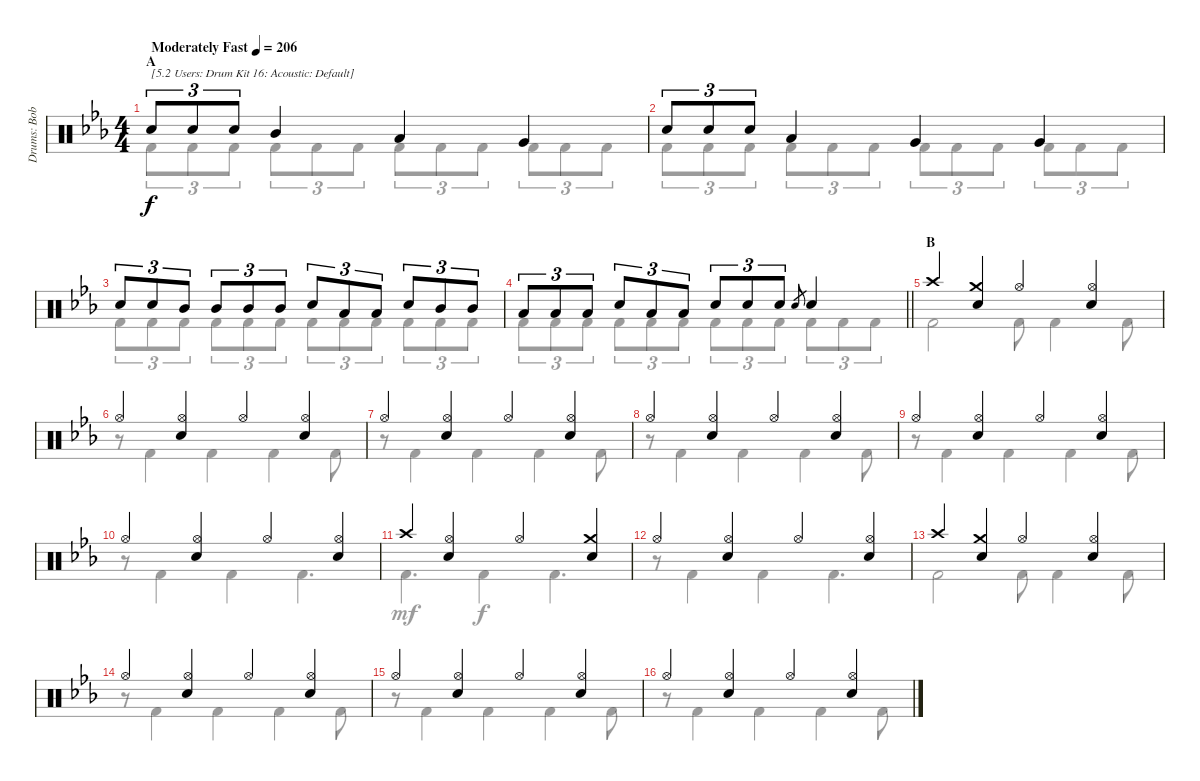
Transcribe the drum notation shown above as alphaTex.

\track ("Drums: Bobby" "Drums: Bob") {instrument percussion}
\staff {score}
\articulation defaults
\voice
\ts (4 4)
\section ("" "A")
\tempo (206 "Moderately Fast")
\clef neutral
\ks eb "Electric Snare (hit)".8{tu (3 2) txt "[5.2 Users: Drum Kit 16: Acoustic: Default]" dy f} "Electric Snare (hit)".8{tu (3 2)} "Electric Snare (hit)".8{tu (3 2)} "Mid Tom (hit)".4 "Low Tom (hit)".4 "Very Low Tom (hit)".4
|
"Electric Snare (hit)".8{tu (3 2)} "Electric Snare (hit)".8{tu (3 2)} "Electric Snare (hit)".8{tu (3 2)} "Low Tom (hit)".4 "Very Low Tom (hit)".4 "Very Low Tom (hit)".4 |
"Electric Snare (hit)".8{tu (3 2)} "Electric Snare (hit)".8{tu (3 2)} "Mid Tom (hit)".8{tu (3 2)} "Mid Tom (hit)".8{tu (3 2)} "Mid Tom (hit)".8{tu (3 2)} "Mid Tom (hit)".8{tu (3 2)} "Electric Snare (hit)".8{tu (3 2)} "Low Tom (hit)".8{tu (3 2)} "Low Tom (hit)".8{tu (3 2)} "Electric Snare (hit)".8{tu (3 2)} "Mid Tom (hit)".8{tu (3 2)} "Mid Tom (hit)".8{tu (3 2)} |
\barLineRight lightlight "Low Tom (hit)".8{tu (3 2)} "Low Tom (hit)".8{tu (3 2)} "Low Tom (hit)".8{tu (3 2)} "Electric Snare (hit)".8{tu (3 2)} "Low Tom (hit)".8{tu (3 2)} "Low Tom (hit)".8{tu (3 2)} "Electric Snare (hit)".8{tu (3 2)} "Electric Snare (hit)".8{tu (3 2)} "Electric Snare (hit)".8{tu (3 2)} "Electric Snare (hit)".8{gr} "Snare (hit) 2".4
|
\section ("" "B")
"Crash high (hit)".4 ("Crash medium (hit)" "Snare (hit) 2").4 "Hi-Hat (open)".4 ("Hi-Hat (open)" "Snare (hit) 2").4 |
"Hi-Hat (open)".4 ("Hi-Hat (open)" "Snare (hit) 2").4 "Hi-Hat (open)".4 ("Hi-Hat (open)" "Snare (hit) 2").4 |
"Hi-Hat (open)".4 ("Hi-Hat (open)" "Snare (hit) 2").4 "Hi-Hat (open)".4 ("Hi-Hat (open)" "Snare (hit) 2").4 |
"Hi-Hat (open)".4 ("Hi-Hat (open)" "Snare (hit) 2").4 "Hi-Hat (open)".4 ("Hi-Hat (open)" "Snare (hit) 2").4 |
"Hi-Hat (open)".4 ("Hi-Hat (open)" "Snare (hit) 2").4 "Hi-Hat (open)".4 ("Hi-Hat (open)" "Snare (hit) 2").4 |
"Hi-Hat (open)".4 ("Hi-Hat (open)" "Snare (hit) 2").4 "Hi-Hat (open)".4 ("Hi-Hat (open)" "Snare (hit) 2").4 |
"Crash high (hit)".4 ("Hi-Hat (open)" "Snare (hit) 2").4 "Hi-Hat (open)".4 ("Crash medium (hit)" "Snare (hit) 2").4 |
"Hi-Hat (open)".4 ("Hi-Hat (open)" "Snare (hit) 2").4 "Hi-Hat (open)".4 ("Hi-Hat (open)" "Snare (hit) 2").4 |
"Crash high (hit)".4 ("Crash medium (hit)" "Snare (hit) 2").4 "Hi-Hat (open)".4 ("Hi-Hat (open)" "Snare (hit) 2").4 |
"Hi-Hat (open)".4 ("Hi-Hat (open)" "Snare (hit) 2").4 "Hi-Hat (open)".4 ("Hi-Hat (open)" "Snare (hit) 2").4 |
"Hi-Hat (open)".4 ("Hi-Hat (open)" "Snare (hit) 2").4 "Hi-Hat (open)".4 ("Hi-Hat (open)" "Snare (hit) 2").4 |
"Hi-Hat (open)".4 ("Hi-Hat (open)" "Snare (hit) 2").4 "Hi-Hat (open)".4 ("Hi-Hat (open)" "Snare (hit) 2").4
\voice
\clef neutral
\ottava regular
\simile none
\ks eb "Kick (hit) 2".8{tu (3 2) dy f} "Kick (hit) 2".8{tu (3 2)} "Kick (hit) 2".8{tu (3 2)} "Kick (hit) 2".8{tu (3 2)} "Kick (hit) 2".8{tu (3 2)} "Kick (hit) 2".8{tu (3 2)} "Kick (hit) 2".8{tu (3 2)} "Kick (hit) 2".8{tu (3 2)} "Kick (hit) 2".8{tu (3 2)} "Kick (hit) 2".8{tu (3 2)} "Kick (hit) 2".8{tu (3 2)} "Kick (hit) 2".8{tu (3 2)}
|
"Kick (hit) 2".8{tu (3 2)} "Kick (hit) 2".8{tu (3 2)} "Kick (hit) 2".8{tu (3 2)} "Kick (hit) 2".8{tu (3 2)} "Kick (hit) 2".8{tu (3 2)} "Kick (hit) 2".8{tu (3 2)} "Kick (hit) 2".8{tu (3 2)} "Kick (hit) 2".8{tu (3 2)} "Kick (hit) 2".8{tu (3 2)} "Kick (hit) 2".8{tu (3 2)} "Kick (hit) 2".8{tu (3 2)} "Kick (hit) 2".8{tu (3 2)} |
"Kick (hit) 2".8{tu (3 2)} "Kick (hit) 2".8{tu (3 2)} "Kick (hit) 2".8{tu (3 2)} "Kick (hit) 2".8{tu (3 2)} "Kick (hit) 2".8{tu (3 2)} "Kick (hit) 2".8{tu (3 2)} "Kick (hit) 2".8{tu (3 2)} "Kick (hit) 2".8{tu (3 2)} "Kick (hit) 2".8{tu (3 2)} "Kick (hit) 2".8{tu (3 2)} "Kick (hit) 2".8{tu (3 2)} "Kick (hit) 2".8{tu (3 2)} |
\barLineRight lightlight "Kick (hit) 2".8{tu (3 2)} "Kick (hit) 2".8{tu (3 2)} "Kick (hit) 2".8{tu (3 2)} "Kick (hit) 2".8{tu (3 2)} "Kick (hit) 2".8{tu (3 2)} "Kick (hit) 2".8{tu (3 2)} "Kick (hit) 2".8{tu (3 2)} "Kick (hit) 2".8{tu (3 2)} "Kick (hit) 2".8{tu (3 2)} "Kick (hit) 2".8{tu (3 2)} "Kick (hit) 2".8{tu (3 2)} "Kick (hit) 2".8{tu (3 2)}
|
"Kick (hit) 2".2 "Kick (hit) 2".8 "Kick (hit) 2".4 "Kick (hit) 2".8 |
r.8 "Kick (hit) 2".4 "Kick (hit) 2".4 "Kick (hit) 2".4 "Kick (hit) 2".8 |
r.8 "Kick (hit) 2".4 "Kick (hit) 2".4 "Kick (hit) 2".4 "Kick (hit) 2".8 |
r.8 "Kick (hit) 2".4 "Kick (hit) 2".4 "Kick (hit) 2".4 "Kick (hit) 2".8 |
r.8 "Kick (hit) 2".4 "Kick (hit) 2".4 "Kick (hit) 2".4 "Kick (hit) 2".8 |
r.8 "Kick (hit) 2".4 "Kick (hit) 2".4 "Kick (hit) 2".4{d} |
"Kick (hit) 2".4{d dy mf} "Kick (hit) 2".4{dy f} "Kick (hit) 2".4{d} |
r.8 "Kick (hit) 2".4 "Kick (hit) 2".4 "Kick (hit) 2".4{d} |
"Kick (hit) 2".2 "Kick (hit) 2".8 "Kick (hit) 2".4 "Kick (hit) 2".8 |
r.8 "Kick (hit) 2".4 "Kick (hit) 2".4 "Kick (hit) 2".4 "Kick (hit) 2".8 |
r.8 "Kick (hit) 2".4 "Kick (hit) 2".4 "Kick (hit) 2".4 "Kick (hit) 2".8 |
r.8 "Kick (hit) 2".4 "Kick (hit) 2".4 "Kick (hit) 2".4 "Kick (hit) 2".8
